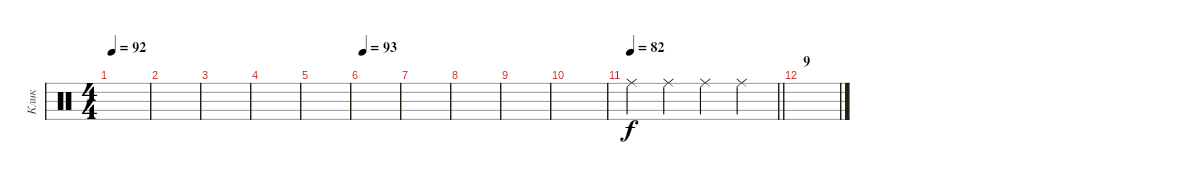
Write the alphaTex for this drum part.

\track ("Клик" "Клик") {mute instrument percussion}
\staff {score}
\articulation defaults
\ts (4 4)
\tempo 92
\clef neutral
\ks c
|
|
|
|
|
\tempo 93
|
|
|
|
|
\tempo 82
\barLineRight lightlight "Ride (middle)".4 "Ride (middle)".4 "Ride (middle)".4 "Ride (middle)".4
|
\section ("" "9")
